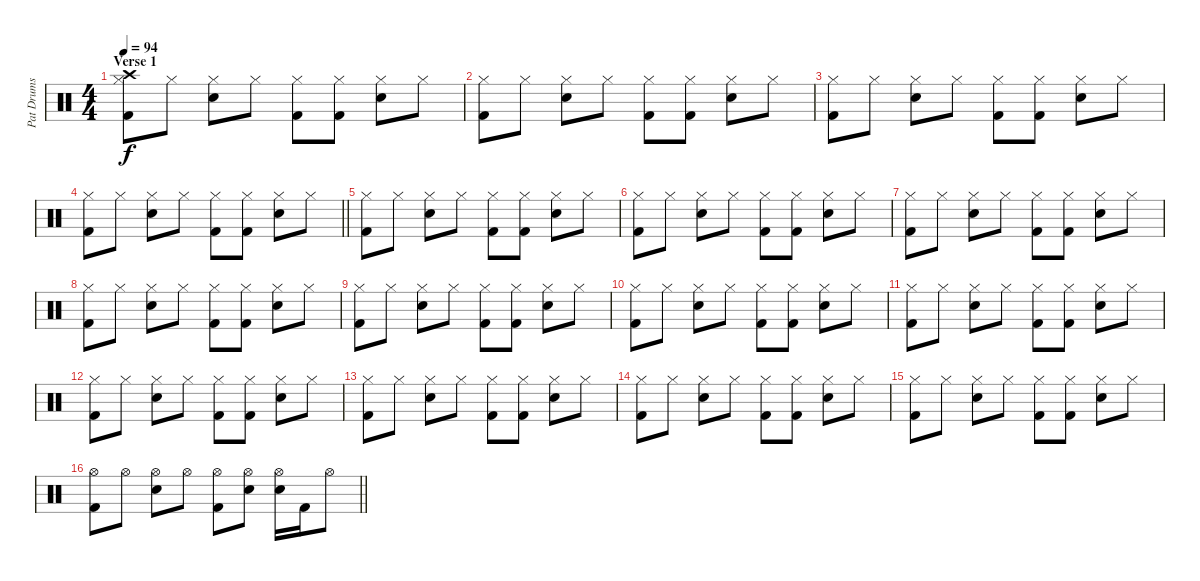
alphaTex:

\track ("Pat Drums" "Pat Drums") {instrument percussion}
\staff {score}
\articulation defaults
\ts (4 4)
\section ("" "Verse 1")
\tempo 94
\clef neutral
\ks c
("Hi-Hat (closed)" "Kick (hit) 2" "Crash high (hit)").8{dy f} "Hi-Hat (closed)".8 ("Electric Snare (hit)" "Hi-Hat (closed)").8 "Hi-Hat (closed)".8 ("Hi-Hat (closed)" "Kick (hit) 2").8 ("Hi-Hat (closed)" "Kick (hit) 2").8 ("Electric Snare (hit)" "Hi-Hat (closed)").8 "Hi-Hat (closed)".8 |
("Hi-Hat (closed)" "Kick (hit) 2").8 "Hi-Hat (closed)".8 ("Electric Snare (hit)" "Hi-Hat (closed)").8 "Hi-Hat (closed)".8 ("Hi-Hat (closed)" "Kick (hit) 2").8 ("Hi-Hat (closed)" "Kick (hit) 2").8 ("Electric Snare (hit)" "Hi-Hat (closed)").8 "Hi-Hat (closed)".8 |
("Hi-Hat (closed)" "Kick (hit) 2").8 "Hi-Hat (closed)".8 ("Electric Snare (hit)" "Hi-Hat (closed)").8 "Hi-Hat (closed)".8 ("Hi-Hat (closed)" "Kick (hit) 2").8 ("Hi-Hat (closed)" "Kick (hit) 2").8 ("Electric Snare (hit)" "Hi-Hat (closed)").8 "Hi-Hat (closed)".8 |
\barLineRight lightlight
("Hi-Hat (closed)" "Kick (hit) 2").8 "Hi-Hat (closed)".8 ("Electric Snare (hit)" "Hi-Hat (closed)").8 "Hi-Hat (closed)".8 ("Hi-Hat (closed)" "Kick (hit) 2").8 ("Hi-Hat (closed)" "Kick (hit) 2").8 ("Electric Snare (hit)" "Hi-Hat (closed)").8 "Hi-Hat (closed)".8 |
("Hi-Hat (closed)" "Kick (hit) 2").8 "Hi-Hat (closed)".8 ("Electric Snare (hit)" "Hi-Hat (closed)").8 "Hi-Hat (closed)".8 ("Hi-Hat (closed)" "Kick (hit) 2").8 ("Hi-Hat (closed)" "Kick (hit) 2").8 ("Electric Snare (hit)" "Hi-Hat (closed)").8 "Hi-Hat (closed)".8 |
("Hi-Hat (closed)" "Kick (hit) 2").8 "Hi-Hat (closed)".8 ("Electric Snare (hit)" "Hi-Hat (closed)").8 "Hi-Hat (closed)".8 ("Hi-Hat (closed)" "Kick (hit) 2").8 ("Hi-Hat (closed)" "Kick (hit) 2").8 ("Electric Snare (hit)" "Hi-Hat (closed)").8 "Hi-Hat (closed)".8 |
("Hi-Hat (closed)" "Kick (hit) 2").8 "Hi-Hat (closed)".8 ("Electric Snare (hit)" "Hi-Hat (closed)").8 "Hi-Hat (closed)".8 ("Hi-Hat (closed)" "Kick (hit) 2").8 ("Hi-Hat (closed)" "Kick (hit) 2").8 ("Electric Snare (hit)" "Hi-Hat (closed)").8 "Hi-Hat (closed)".8 |
("Hi-Hat (closed)" "Kick (hit) 2").8 "Hi-Hat (closed)".8 ("Electric Snare (hit)" "Hi-Hat (closed)").8 "Hi-Hat (closed)".8 ("Hi-Hat (closed)" "Kick (hit) 2").8 ("Hi-Hat (closed)" "Kick (hit) 2").8 ("Electric Snare (hit)" "Hi-Hat (closed)").8 "Hi-Hat (closed)".8 |
("Hi-Hat (closed)" "Kick (hit) 2").8 "Hi-Hat (closed)".8 ("Electric Snare (hit)" "Hi-Hat (closed)").8 "Hi-Hat (closed)".8 ("Hi-Hat (closed)" "Kick (hit) 2").8 ("Hi-Hat (closed)" "Kick (hit) 2").8 ("Electric Snare (hit)" "Hi-Hat (closed)").8 "Hi-Hat (closed)".8 |
("Hi-Hat (closed)" "Kick (hit) 2").8 "Hi-Hat (closed)".8 ("Electric Snare (hit)" "Hi-Hat (closed)").8 "Hi-Hat (closed)".8 ("Hi-Hat (closed)" "Kick (hit) 2").8 ("Hi-Hat (closed)" "Kick (hit) 2").8 ("Electric Snare (hit)" "Hi-Hat (closed)").8 "Hi-Hat (closed)".8 |
("Hi-Hat (closed)" "Kick (hit) 2").8 "Hi-Hat (closed)".8 ("Electric Snare (hit)" "Hi-Hat (closed)").8 "Hi-Hat (closed)".8 ("Hi-Hat (closed)" "Kick (hit) 2").8 ("Hi-Hat (closed)" "Kick (hit) 2").8 ("Electric Snare (hit)" "Hi-Hat (closed)").8 "Hi-Hat (closed)".8 |
("Hi-Hat (closed)" "Kick (hit) 2").8 "Hi-Hat (closed)".8 ("Electric Snare (hit)" "Hi-Hat (closed)").8 "Hi-Hat (closed)".8 ("Hi-Hat (closed)" "Kick (hit) 2").8 ("Hi-Hat (closed)" "Kick (hit) 2").8 ("Electric Snare (hit)" "Hi-Hat (closed)").8 "Hi-Hat (closed)".8 |
("Hi-Hat (closed)" "Kick (hit) 2").8 "Hi-Hat (closed)".8 ("Electric Snare (hit)" "Hi-Hat (closed)").8 "Hi-Hat (closed)".8 ("Hi-Hat (closed)" "Kick (hit) 2").8 ("Hi-Hat (closed)" "Kick (hit) 2").8 ("Electric Snare (hit)" "Hi-Hat (closed)").8 "Hi-Hat (closed)".8 |
("Hi-Hat (closed)" "Kick (hit) 2").8 "Hi-Hat (closed)".8 ("Electric Snare (hit)" "Hi-Hat (closed)").8 "Hi-Hat (closed)".8 ("Hi-Hat (closed)" "Kick (hit) 2").8 ("Hi-Hat (closed)" "Kick (hit) 2").8 ("Electric Snare (hit)" "Hi-Hat (closed)").8 "Hi-Hat (closed)".8 |
("Hi-Hat (closed)" "Kick (hit) 2").8 "Hi-Hat (closed)".8 ("Electric Snare (hit)" "Hi-Hat (closed)").8 "Hi-Hat (closed)".8 ("Hi-Hat (closed)" "Kick (hit) 2").8 ("Hi-Hat (closed)" "Kick (hit) 2").8 ("Electric Snare (hit)" "Hi-Hat (closed)").8 "Hi-Hat (closed)".8 |
\barLineRight lightlight
("Hi-Hat (open)" "Kick (hit) 2").8 "Hi-Hat (open)".8 ("Electric Snare (hit)" "Hi-Hat (open)").8 "Hi-Hat (open)".8 ("Hi-Hat (open)" "Kick (hit) 2").8 ("Electric Snare (hit)" "Hi-Hat (open)").8 ("Electric Snare (hit)" "Hi-Hat (open)").16 "Kick (hit) 2".16 "Hi-Hat (open)".8
